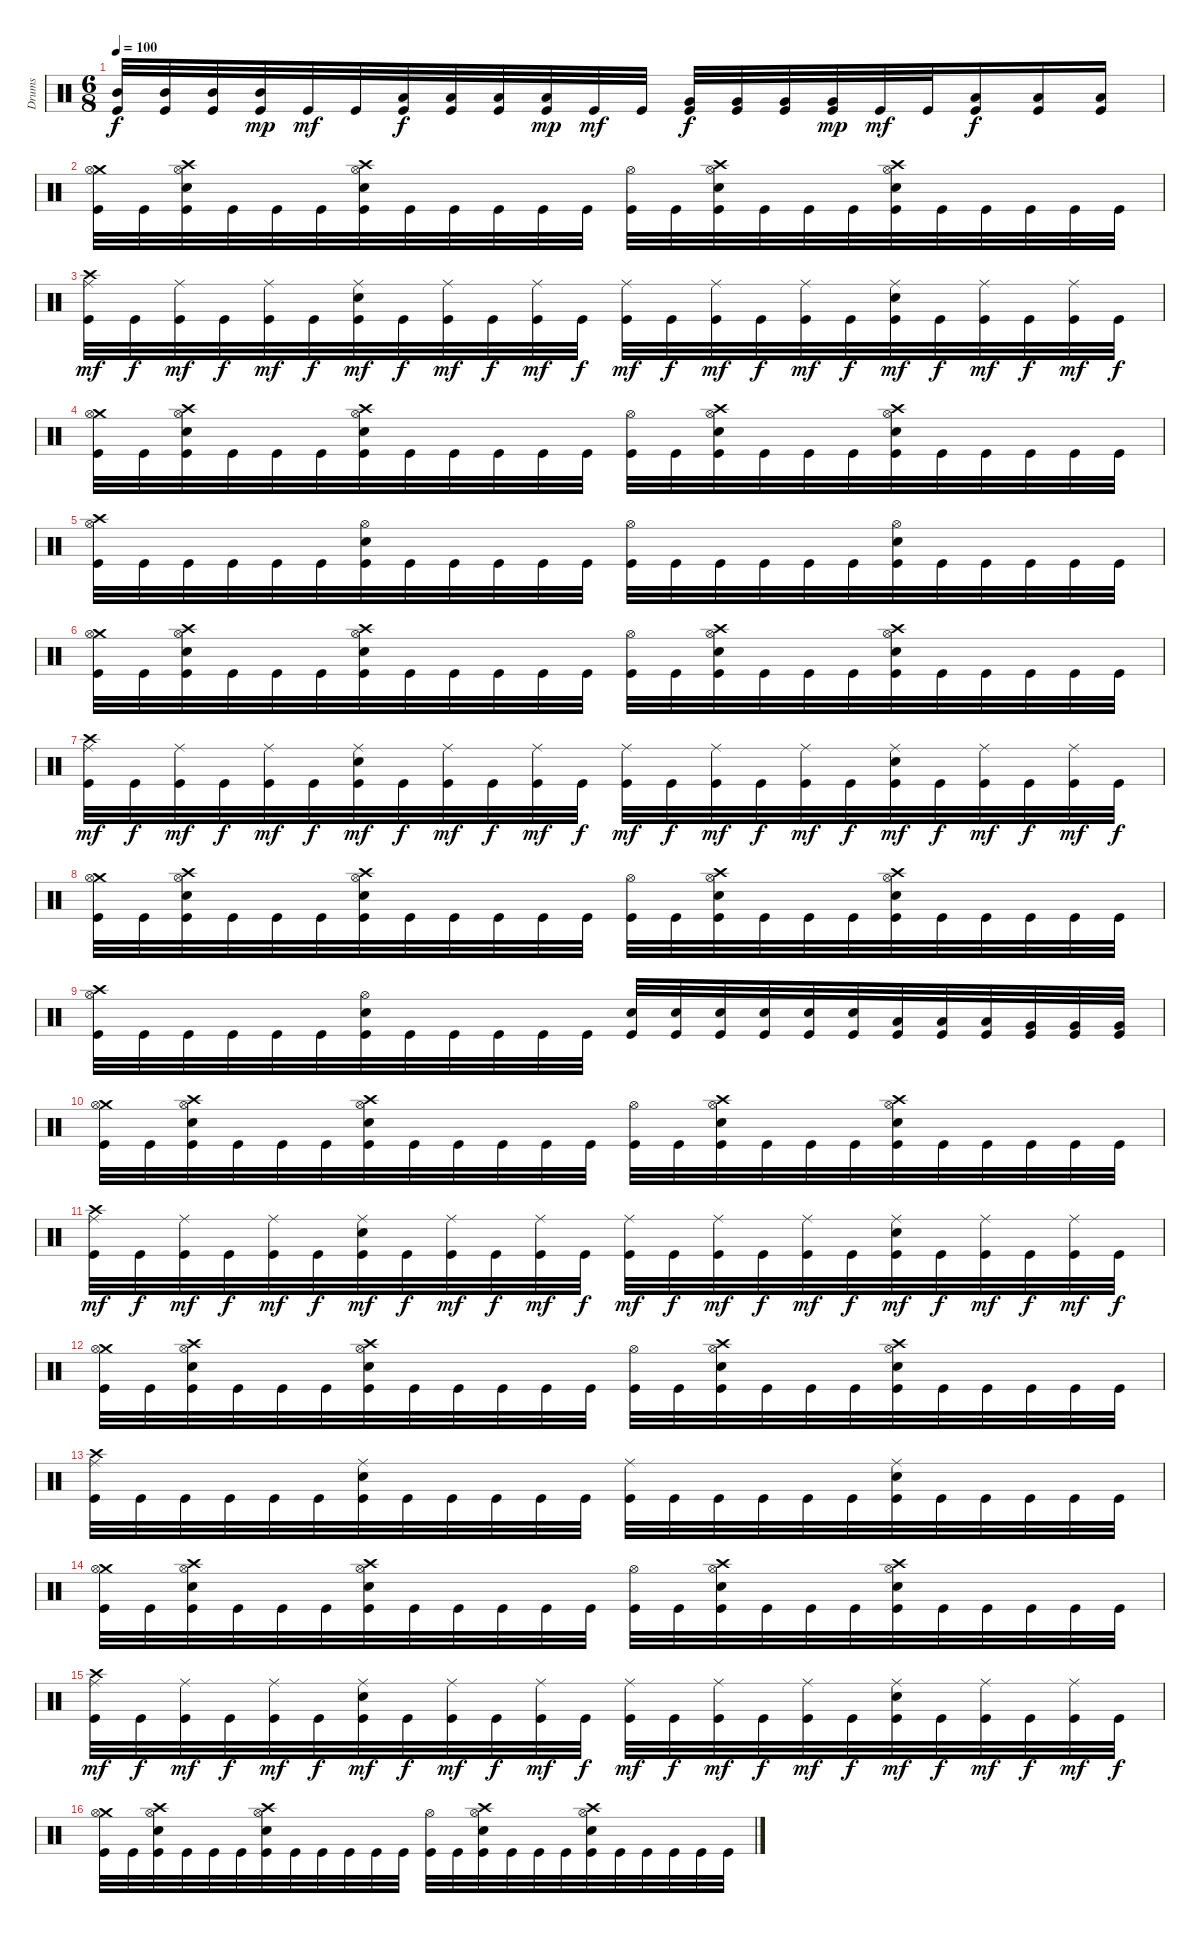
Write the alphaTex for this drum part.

\track ("Drums" "Drums") {instrument percussion}
\staff {score}
\articulation defaults
\ts (6 8)
\tempo 100
\clef neutral
\ks c
("Mid Tom (hit)" "Kick (hit)").32{dy f} ("Mid Tom (hit)" "Kick (hit)").32 ("Mid Tom (hit)" "Kick (hit)").32 ("Mid Tom (hit)" "Kick (hit)").32{dy mp} "Kick (hit)".32{dy mf} "Kick (hit)".32 ("Low Tom (hit)" "Kick (hit)").32{dy f} ("Low Tom (hit)" "Kick (hit)").32 ("Low Tom (hit)" "Kick (hit)").32 ("Low Tom (hit)" "Kick (hit)").32{dy mp} "Kick (hit)".32{dy mf} "Kick (hit)".32 ("Very Low Tom (hit)" "Kick (hit)").32{dy f} ("Very Low Tom (hit)" "Kick (hit)").32 ("Very Low Tom (hit)" "Kick (hit)").32 ("Very Low Tom (hit)" "Kick (hit)").32{dy mp} "Kick (hit)".32{dy mf} "Kick (hit)".32 ("Low Floor Tom (hit)" "Kick (hit)").16{dy f} ("Low Floor Tom (hit)" "Kick (hit)").16 ("Low Floor Tom (hit)" "Kick (hit)").16 |
("Crash medium (hit)" "Hi-Hat (open)" "Kick (hit)").32 "Kick (hit)".32 ("Crash high (hit)" "Hi-Hat (open)" "Electric Snare (hit)" "Kick (hit)").32 "Kick (hit)".32 "Kick (hit)".32 "Kick (hit)".32 ("Crash high (hit)" "Hi-Hat (open)" "Electric Snare (hit)" "Kick (hit)").32 "Kick (hit)".32 "Kick (hit)".32 "Kick (hit)".32 "Kick (hit)".32 "Kick (hit)".32 ("Hi-Hat (open)" "Kick (hit)").32 "Kick (hit)".32 ("Crash high (hit)" "Hi-Hat (open)" "Electric Snare (hit)" "Kick (hit)").32 "Kick (hit)".32 "Kick (hit)".32 "Kick (hit)".32 ("Crash high (hit)" "Hi-Hat (open)" "Electric Snare (hit)" "Kick (hit)").32 "Kick (hit)".32 "Kick (hit)".32 "Kick (hit)".32 "Kick (hit)".32 "Kick (hit)".32 |
("Crash high (hit)" "Ride (middle)" "Kick (hit)").32{dy mf} "Kick (hit)".32{dy f} ("Ride (middle)" "Kick (hit)").32{dy mf} "Kick (hit)".32{dy f} ("Ride (middle)" "Kick (hit)").32{dy mf} "Kick (hit)".32{dy f} ("Ride (middle)" "Electric Snare (hit)" "Kick (hit)").32{dy mf} "Kick (hit)".32{dy f} ("Ride (middle)" "Kick (hit)").32{dy mf} "Kick (hit)".32{dy f} ("Ride (middle)" "Kick (hit)").32{dy mf} "Kick (hit)".32{dy f} ("Ride (middle)" "Kick (hit)").32{dy mf} "Kick (hit)".32{dy f} ("Ride (middle)" "Kick (hit)").32{dy mf} "Kick (hit)".32{dy f} ("Ride (middle)" "Kick (hit)").32{dy mf} "Kick (hit)".32{dy f} ("Ride (middle)" "Electric Snare (hit)" "Kick (hit)").32{dy mf} "Kick (hit)".32{dy f} ("Ride (middle)" "Kick (hit)").32{dy mf} "Kick (hit)".32{dy f} ("Ride (middle)" "Kick (hit)").32{dy mf} "Kick (hit)".32{dy f} |
("Crash medium (hit)" "Hi-Hat (open)" "Kick (hit)").32 "Kick (hit)".32 ("Crash high (hit)" "Hi-Hat (open)" "Electric Snare (hit)" "Kick (hit)").32 "Kick (hit)".32 "Kick (hit)".32 "Kick (hit)".32 ("Crash high (hit)" "Hi-Hat (open)" "Electric Snare (hit)" "Kick (hit)").32 "Kick (hit)".32 "Kick (hit)".32 "Kick (hit)".32 "Kick (hit)".32 "Kick (hit)".32 ("Hi-Hat (open)" "Kick (hit)").32 "Kick (hit)".32 ("Crash high (hit)" "Hi-Hat (open)" "Electric Snare (hit)" "Kick (hit)").32 "Kick (hit)".32 "Kick (hit)".32 "Kick (hit)".32 ("Crash high (hit)" "Hi-Hat (open)" "Electric Snare (hit)" "Kick (hit)").32 "Kick (hit)".32 "Kick (hit)".32 "Kick (hit)".32 "Kick (hit)".32 "Kick (hit)".32 |
("Crash high (hit)" "Hi-Hat (open)" "Kick (hit)").32 "Kick (hit)".32 "Kick (hit)".32 "Kick (hit)".32 "Kick (hit)".32 "Kick (hit)".32 ("Hi-Hat (open)" "Electric Snare (hit)" "Kick (hit)").32 "Kick (hit)".32 "Kick (hit)".32 "Kick (hit)".32 "Kick (hit)".32 "Kick (hit)".32 ("Hi-Hat (open)" "Kick (hit)").32 "Kick (hit)".32 "Kick (hit)".32 "Kick (hit)".32 "Kick (hit)".32 "Kick (hit)".32 ("Hi-Hat (open)" "Electric Snare (hit)" "Kick (hit)").32 "Kick (hit)".32 "Kick (hit)".32 "Kick (hit)".32 "Kick (hit)".32 "Kick (hit)".32 |
("Crash medium (hit)" "Hi-Hat (open)" "Kick (hit)").32 "Kick (hit)".32 ("Crash high (hit)" "Hi-Hat (open)" "Electric Snare (hit)" "Kick (hit)").32 "Kick (hit)".32 "Kick (hit)".32 "Kick (hit)".32 ("Crash high (hit)" "Hi-Hat (open)" "Electric Snare (hit)" "Kick (hit)").32 "Kick (hit)".32 "Kick (hit)".32 "Kick (hit)".32 "Kick (hit)".32 "Kick (hit)".32 ("Hi-Hat (open)" "Kick (hit)").32 "Kick (hit)".32 ("Crash high (hit)" "Hi-Hat (open)" "Electric Snare (hit)" "Kick (hit)").32 "Kick (hit)".32 "Kick (hit)".32 "Kick (hit)".32 ("Crash high (hit)" "Hi-Hat (open)" "Electric Snare (hit)" "Kick (hit)").32 "Kick (hit)".32 "Kick (hit)".32 "Kick (hit)".32 "Kick (hit)".32 "Kick (hit)".32 |
("Crash high (hit)" "Ride (middle)" "Kick (hit)").32{dy mf} "Kick (hit)".32{dy f} ("Ride (middle)" "Kick (hit)").32{dy mf} "Kick (hit)".32{dy f} ("Ride (middle)" "Kick (hit)").32{dy mf} "Kick (hit)".32{dy f} ("Ride (middle)" "Electric Snare (hit)" "Kick (hit)").32{dy mf} "Kick (hit)".32{dy f} ("Ride (middle)" "Kick (hit)").32{dy mf} "Kick (hit)".32{dy f} ("Ride (middle)" "Kick (hit)").32{dy mf} "Kick (hit)".32{dy f} ("Ride (middle)" "Kick (hit)").32{dy mf} "Kick (hit)".32{dy f} ("Ride (middle)" "Kick (hit)").32{dy mf} "Kick (hit)".32{dy f} ("Ride (middle)" "Kick (hit)").32{dy mf} "Kick (hit)".32{dy f} ("Ride (middle)" "Electric Snare (hit)" "Kick (hit)").32{dy mf} "Kick (hit)".32{dy f} ("Ride (middle)" "Kick (hit)").32{dy mf} "Kick (hit)".32{dy f} ("Ride (middle)" "Kick (hit)").32{dy mf} "Kick (hit)".32{dy f} |
("Crash medium (hit)" "Hi-Hat (open)" "Kick (hit)").32 "Kick (hit)".32 ("Crash high (hit)" "Hi-Hat (open)" "Electric Snare (hit)" "Kick (hit)").32 "Kick (hit)".32 "Kick (hit)".32 "Kick (hit)".32 ("Crash high (hit)" "Hi-Hat (open)" "Electric Snare (hit)" "Kick (hit)").32 "Kick (hit)".32 "Kick (hit)".32 "Kick (hit)".32 "Kick (hit)".32 "Kick (hit)".32 ("Hi-Hat (open)" "Kick (hit)").32 "Kick (hit)".32 ("Crash high (hit)" "Hi-Hat (open)" "Electric Snare (hit)" "Kick (hit)").32 "Kick (hit)".32 "Kick (hit)".32 "Kick (hit)".32 ("Crash high (hit)" "Hi-Hat (open)" "Electric Snare (hit)" "Kick (hit)").32 "Kick (hit)".32 "Kick (hit)".32 "Kick (hit)".32 "Kick (hit)".32 "Kick (hit)".32 |
("Crash high (hit)" "Hi-Hat (open)" "Kick (hit)").32 "Kick (hit)".32 "Kick (hit)".32 "Kick (hit)".32 "Kick (hit)".32 "Kick (hit)".32 ("Hi-Hat (open)" "Electric Snare (hit)" "Kick (hit)").32 "Kick (hit)".32 "Kick (hit)".32 "Kick (hit)".32 "Kick (hit)".32 "Kick (hit)".32 ("Electric Snare (hit)" "Kick (hit)").32 ("Electric Snare (hit)" "Kick (hit)").32 ("Electric Snare (hit)" "Kick (hit)").32 ("Electric Snare (hit)" "Kick (hit)").32 ("Electric Snare (hit)" "Kick (hit)").32 ("Electric Snare (hit)" "Kick (hit)").32 ("Low Tom (hit)" "Kick (hit)").32 ("Low Tom (hit)" "Kick (hit)").32 ("Low Tom (hit)" "Kick (hit)").32 ("Very Low Tom (hit)" "Kick (hit)").32 ("Very Low Tom (hit)" "Kick (hit)").32 ("Very Low Tom (hit)" "Kick (hit)").32 |
("Crash medium (hit)" "Hi-Hat (open)" "Kick (hit)").32 "Kick (hit)".32 ("Crash high (hit)" "Hi-Hat (open)" "Electric Snare (hit)" "Kick (hit)").32 "Kick (hit)".32 "Kick (hit)".32 "Kick (hit)".32 ("Crash high (hit)" "Hi-Hat (open)" "Electric Snare (hit)" "Kick (hit)").32 "Kick (hit)".32 "Kick (hit)".32 "Kick (hit)".32 "Kick (hit)".32 "Kick (hit)".32 ("Hi-Hat (open)" "Kick (hit)").32 "Kick (hit)".32 ("Crash high (hit)" "Hi-Hat (open)" "Electric Snare (hit)" "Kick (hit)").32 "Kick (hit)".32 "Kick (hit)".32 "Kick (hit)".32 ("Crash high (hit)" "Hi-Hat (open)" "Electric Snare (hit)" "Kick (hit)").32 "Kick (hit)".32 "Kick (hit)".32 "Kick (hit)".32 "Kick (hit)".32 "Kick (hit)".32 |
("Crash high (hit)" "Ride (middle)" "Kick (hit)").32{dy mf} "Kick (hit)".32{dy f} ("Ride (middle)" "Kick (hit)").32{dy mf} "Kick (hit)".32{dy f} ("Ride (middle)" "Kick (hit)").32{dy mf} "Kick (hit)".32{dy f} ("Ride (middle)" "Electric Snare (hit)" "Kick (hit)").32{dy mf} "Kick (hit)".32{dy f} ("Ride (middle)" "Kick (hit)").32{dy mf} "Kick (hit)".32{dy f} ("Ride (middle)" "Kick (hit)").32{dy mf} "Kick (hit)".32{dy f} ("Ride (middle)" "Kick (hit)").32{dy mf} "Kick (hit)".32{dy f} ("Ride (middle)" "Kick (hit)").32{dy mf} "Kick (hit)".32{dy f} ("Ride (middle)" "Kick (hit)").32{dy mf} "Kick (hit)".32{dy f} ("Ride (middle)" "Electric Snare (hit)" "Kick (hit)").32{dy mf} "Kick (hit)".32{dy f} ("Ride (middle)" "Kick (hit)").32{dy mf} "Kick (hit)".32{dy f} ("Ride (middle)" "Kick (hit)").32{dy mf} "Kick (hit)".32{dy f} |
("Crash medium (hit)" "Hi-Hat (open)" "Kick (hit)").32 "Kick (hit)".32 ("Crash high (hit)" "Hi-Hat (open)" "Electric Snare (hit)" "Kick (hit)").32 "Kick (hit)".32 "Kick (hit)".32 "Kick (hit)".32 ("Crash high (hit)" "Hi-Hat (open)" "Electric Snare (hit)" "Kick (hit)").32 "Kick (hit)".32 "Kick (hit)".32 "Kick (hit)".32 "Kick (hit)".32 "Kick (hit)".32 ("Hi-Hat (open)" "Kick (hit)").32 "Kick (hit)".32 ("Crash high (hit)" "Hi-Hat (open)" "Electric Snare (hit)" "Kick (hit)").32 "Kick (hit)".32 "Kick (hit)".32 "Kick (hit)".32 ("Crash high (hit)" "Hi-Hat (open)" "Electric Snare (hit)" "Kick (hit)").32 "Kick (hit)".32 "Kick (hit)".32 "Kick (hit)".32 "Kick (hit)".32 "Kick (hit)".32 |
("Crash high (hit)" "Ride (middle)" "Kick (hit)").32 "Kick (hit)".32 "Kick (hit)".32 "Kick (hit)".32 "Kick (hit)".32 "Kick (hit)".32 ("Ride (middle)" "Electric Snare (hit)" "Kick (hit)").32 "Kick (hit)".32 "Kick (hit)".32 "Kick (hit)".32 "Kick (hit)".32 "Kick (hit)".32 ("Ride (middle)" "Kick (hit)").32 "Kick (hit)".32 "Kick (hit)".32 "Kick (hit)".32 "Kick (hit)".32 "Kick (hit)".32 ("Ride (middle)" "Electric Snare (hit)" "Kick (hit)").32 "Kick (hit)".32 "Kick (hit)".32 "Kick (hit)".32 "Kick (hit)".32 "Kick (hit)".32 |
("Crash medium (hit)" "Hi-Hat (open)" "Kick (hit)").32 "Kick (hit)".32 ("Crash high (hit)" "Hi-Hat (open)" "Electric Snare (hit)" "Kick (hit)").32 "Kick (hit)".32 "Kick (hit)".32 "Kick (hit)".32 ("Crash high (hit)" "Hi-Hat (open)" "Electric Snare (hit)" "Kick (hit)").32 "Kick (hit)".32 "Kick (hit)".32 "Kick (hit)".32 "Kick (hit)".32 "Kick (hit)".32 ("Hi-Hat (open)" "Kick (hit)").32 "Kick (hit)".32 ("Crash high (hit)" "Hi-Hat (open)" "Electric Snare (hit)" "Kick (hit)").32 "Kick (hit)".32 "Kick (hit)".32 "Kick (hit)".32 ("Crash high (hit)" "Hi-Hat (open)" "Electric Snare (hit)" "Kick (hit)").32 "Kick (hit)".32 "Kick (hit)".32 "Kick (hit)".32 "Kick (hit)".32 "Kick (hit)".32 |
("Crash high (hit)" "Ride (middle)" "Kick (hit)").32{dy mf} "Kick (hit)".32{dy f} ("Ride (middle)" "Kick (hit)").32{dy mf} "Kick (hit)".32{dy f} ("Ride (middle)" "Kick (hit)").32{dy mf} "Kick (hit)".32{dy f} ("Ride (middle)" "Electric Snare (hit)" "Kick (hit)").32{dy mf} "Kick (hit)".32{dy f} ("Ride (middle)" "Kick (hit)").32{dy mf} "Kick (hit)".32{dy f} ("Ride (middle)" "Kick (hit)").32{dy mf} "Kick (hit)".32{dy f} ("Ride (middle)" "Kick (hit)").32{dy mf} "Kick (hit)".32{dy f} ("Ride (middle)" "Kick (hit)").32{dy mf} "Kick (hit)".32{dy f} ("Ride (middle)" "Kick (hit)").32{dy mf} "Kick (hit)".32{dy f} ("Ride (middle)" "Electric Snare (hit)" "Kick (hit)").32{dy mf} "Kick (hit)".32{dy f} ("Ride (middle)" "Kick (hit)").32{dy mf} "Kick (hit)".32{dy f} ("Ride (middle)" "Kick (hit)").32{dy mf} "Kick (hit)".32{dy f} |
("Crash medium (hit)" "Hi-Hat (open)" "Kick (hit)").32 "Kick (hit)".32 ("Crash high (hit)" "Hi-Hat (open)" "Electric Snare (hit)" "Kick (hit)").32 "Kick (hit)".32 "Kick (hit)".32 "Kick (hit)".32 ("Crash high (hit)" "Hi-Hat (open)" "Electric Snare (hit)" "Kick (hit)").32 "Kick (hit)".32 "Kick (hit)".32 "Kick (hit)".32 "Kick (hit)".32 "Kick (hit)".32 ("Hi-Hat (open)" "Kick (hit)").32 "Kick (hit)".32 ("Crash high (hit)" "Hi-Hat (open)" "Electric Snare (hit)" "Kick (hit)").32 "Kick (hit)".32 "Kick (hit)".32 "Kick (hit)".32 ("Crash high (hit)" "Hi-Hat (open)" "Electric Snare (hit)" "Kick (hit)").32 "Kick (hit)".32 "Kick (hit)".32 "Kick (hit)".32 "Kick (hit)".32 "Kick (hit)".32
